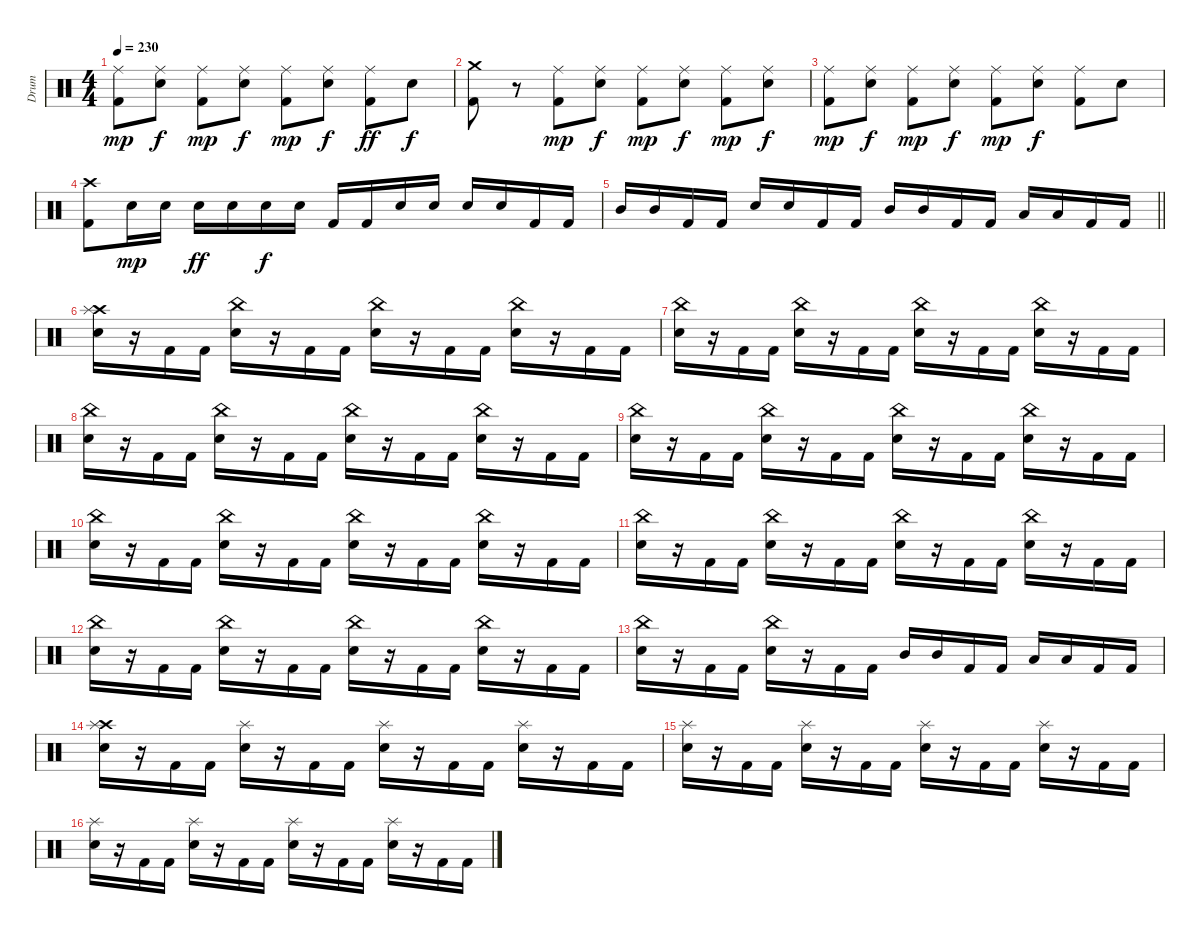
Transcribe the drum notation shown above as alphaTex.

\track ("Drum" "Drum") {instrument percussion}
\staff {score}
\articulation defaults
\ts (4 4)
\tempo 230
\clef neutral
\ks c
("Ride (middle)" "Kick (hit) 2").8{dy mp} ("Ride (middle)" "Electric Snare (hit)").8{dy f} ("Ride (middle)" "Kick (hit) 2").8{dy mp} ("Ride (middle)" "Electric Snare (hit)").8{dy f} ("Ride (middle)" "Kick (hit) 2").8{dy mp} ("Ride (middle)" "Electric Snare (hit)").8{dy f} ("Ride (middle)" "Kick (hit) 2").8{dy ff} "Electric Snare (hit)".8{dy f} |
("Crash medium (hit)" "Kick (hit) 2").8 r.8 ("Ride (middle)" "Kick (hit) 2").8{dy mp} ("Ride (middle)" "Electric Snare (hit)").8{dy f} ("Ride (middle)" "Kick (hit) 2").8{dy mp} ("Ride (middle)" "Electric Snare (hit)").8{dy f} ("Ride (middle)" "Kick (hit) 2").8{dy mp} ("Ride (middle)" "Electric Snare (hit)").8{dy f} |
("Ride (middle)" "Kick (hit) 2").8{dy mp} ("Ride (middle)" "Electric Snare (hit)").8{dy f} ("Ride (middle)" "Kick (hit) 2").8{dy mp} ("Ride (middle)" "Electric Snare (hit)").8{dy f} ("Ride (middle)" "Kick (hit) 2").8{dy mp} ("Ride (middle)" "Electric Snare (hit)").8{dy f} ("Ride (middle)" "Kick (hit) 2").8 "Electric Snare (hit)".8 |
("Crash high (hit)" "Kick (hit) 2").8 "Electric Snare (hit)".16{dy mp} "Electric Snare (hit)".16 "Electric Snare (hit)".16{dy ff} "Electric Snare (hit)".16 "Electric Snare (hit)".16{dy f} "Electric Snare (hit)".16 "Kick (hit) 2".16 "Kick (hit) 2".16 "Electric Snare (hit)".16 "Electric Snare (hit)".16 "Electric Snare (hit)".16 "Electric Snare (hit)".16 "Kick (hit) 2".16 "Kick (hit) 2".16 |
\barLineRight lightlight "Mid Tom (hit)".16 "Mid Tom (hit)".16 "Kick (hit) 2".16 "Kick (hit) 2".16 "Electric Snare (hit)".16 "Electric Snare (hit)".16 "Kick (hit) 2".16 "Kick (hit) 2".16 "Mid Tom (hit)".16 "Mid Tom (hit)".16 "Kick (hit) 2".16 "Kick (hit) 2".16 "Low Tom (hit)".16 "Low Tom (hit)".16 "Kick (hit) 2".16 "Kick (hit) 2".16
|
("Crash high (hit)" "Splash (hit)" "Electric Snare (hit)").16 r.16 "Kick (hit) 2".16 "Kick (hit) 2".16 ("China (hit)" "Electric Snare (hit)").16 r.16 "Kick (hit) 2".16 "Kick (hit) 2".16 ("China (hit)" "Electric Snare (hit)").16 r.16 "Kick (hit) 2".16 "Kick (hit) 2".16 ("China (hit)" "Electric Snare (hit)").16 r.16 "Kick (hit) 2".16 "Kick (hit) 2".16 |
("China (hit)" "Electric Snare (hit)").16 r.16 "Kick (hit) 2".16 "Kick (hit) 2".16 ("China (hit)" "Electric Snare (hit)").16 r.16 "Kick (hit) 2".16 "Kick (hit) 2".16 ("China (hit)" "Electric Snare (hit)").16 r.16 "Kick (hit) 2".16 "Kick (hit) 2".16 ("China (hit)" "Electric Snare (hit)").16 r.16 "Kick (hit) 2".16 "Kick (hit) 2".16 |
("China (hit)" "Electric Snare (hit)").16 r.16 "Kick (hit) 2".16 "Kick (hit) 2".16 ("China (hit)" "Electric Snare (hit)").16 r.16 "Kick (hit) 2".16 "Kick (hit) 2".16 ("China (hit)" "Electric Snare (hit)").16 r.16 "Kick (hit) 2".16 "Kick (hit) 2".16 ("China (hit)" "Electric Snare (hit)").16 r.16 "Kick (hit) 2".16 "Kick (hit) 2".16 |
("China (hit)" "Electric Snare (hit)").16 r.16 "Kick (hit) 2".16 "Kick (hit) 2".16 ("China (hit)" "Electric Snare (hit)").16 r.16 "Kick (hit) 2".16 "Kick (hit) 2".16 ("China (hit)" "Electric Snare (hit)").16 r.16 "Kick (hit) 2".16 "Kick (hit) 2".16 ("China (hit)" "Electric Snare (hit)").16 r.16 "Kick (hit) 2".16 "Kick (hit) 2".16 |
("China (hit)" "Electric Snare (hit)").16 r.16 "Kick (hit) 2".16 "Kick (hit) 2".16 ("China (hit)" "Electric Snare (hit)").16 r.16 "Kick (hit) 2".16 "Kick (hit) 2".16 ("China (hit)" "Electric Snare (hit)").16 r.16 "Kick (hit) 2".16 "Kick (hit) 2".16 ("China (hit)" "Electric Snare (hit)").16 r.16 "Kick (hit) 2".16 "Kick (hit) 2".16 |
("China (hit)" "Electric Snare (hit)").16 r.16 "Kick (hit) 2".16 "Kick (hit) 2".16 ("China (hit)" "Electric Snare (hit)").16 r.16 "Kick (hit) 2".16 "Kick (hit) 2".16 ("China (hit)" "Electric Snare (hit)").16 r.16 "Kick (hit) 2".16 "Kick (hit) 2".16 ("China (hit)" "Electric Snare (hit)").16 r.16 "Kick (hit) 2".16 "Kick (hit) 2".16 |
("China (hit)" "Electric Snare (hit)").16 r.16 "Kick (hit) 2".16 "Kick (hit) 2".16 ("China (hit)" "Electric Snare (hit)").16 r.16 "Kick (hit) 2".16 "Kick (hit) 2".16 ("China (hit)" "Electric Snare (hit)").16 r.16 "Kick (hit) 2".16 "Kick (hit) 2".16 ("China (hit)" "Electric Snare (hit)").16 r.16 "Kick (hit) 2".16 "Kick (hit) 2".16 |
("China (hit)" "Electric Snare (hit)").16 r.16 "Kick (hit) 2".16 "Kick (hit) 2".16 ("China (hit)" "Electric Snare (hit)").16 r.16 "Kick (hit) 2".16 "Kick (hit) 2".16 "Mid Tom (hit)".16 "Mid Tom (hit)".16 "Kick (hit) 2".16 "Kick (hit) 2".16 "Low Tom (hit)".16 "Low Tom (hit)".16 "Kick (hit) 2".16 "Kick (hit) 2".16 |
("Crash high (hit)" "Splash (hit)" "Electric Snare (hit)").16 r.16 "Kick (hit) 2".16 "Kick (hit) 2".16 ("Splash (hit)" "Electric Snare (hit)").16 r.16 "Kick (hit) 2".16 "Kick (hit) 2".16 ("Splash (hit)" "Electric Snare (hit)").16 r.16 "Kick (hit) 2".16 "Kick (hit) 2".16 ("Splash (hit)" "Electric Snare (hit)").16 r.16 "Kick (hit) 2".16 "Kick (hit) 2".16 |
("Splash (hit)" "Electric Snare (hit)").16 r.16 "Kick (hit) 2".16 "Kick (hit) 2".16 ("Splash (hit)" "Electric Snare (hit)").16 r.16 "Kick (hit) 2".16 "Kick (hit) 2".16 ("Splash (hit)" "Electric Snare (hit)").16 r.16 "Kick (hit) 2".16 "Kick (hit) 2".16 ("Splash (hit)" "Electric Snare (hit)").16 r.16 "Kick (hit) 2".16 "Kick (hit) 2".16 |
("Splash (hit)" "Electric Snare (hit)").16 r.16 "Kick (hit) 2".16 "Kick (hit) 2".16 ("Splash (hit)" "Electric Snare (hit)").16 r.16 "Kick (hit) 2".16 "Kick (hit) 2".16 ("Splash (hit)" "Electric Snare (hit)").16 r.16 "Kick (hit) 2".16 "Kick (hit) 2".16 ("Splash (hit)" "Electric Snare (hit)").16 r.16 "Kick (hit) 2".16 "Kick (hit) 2".16
